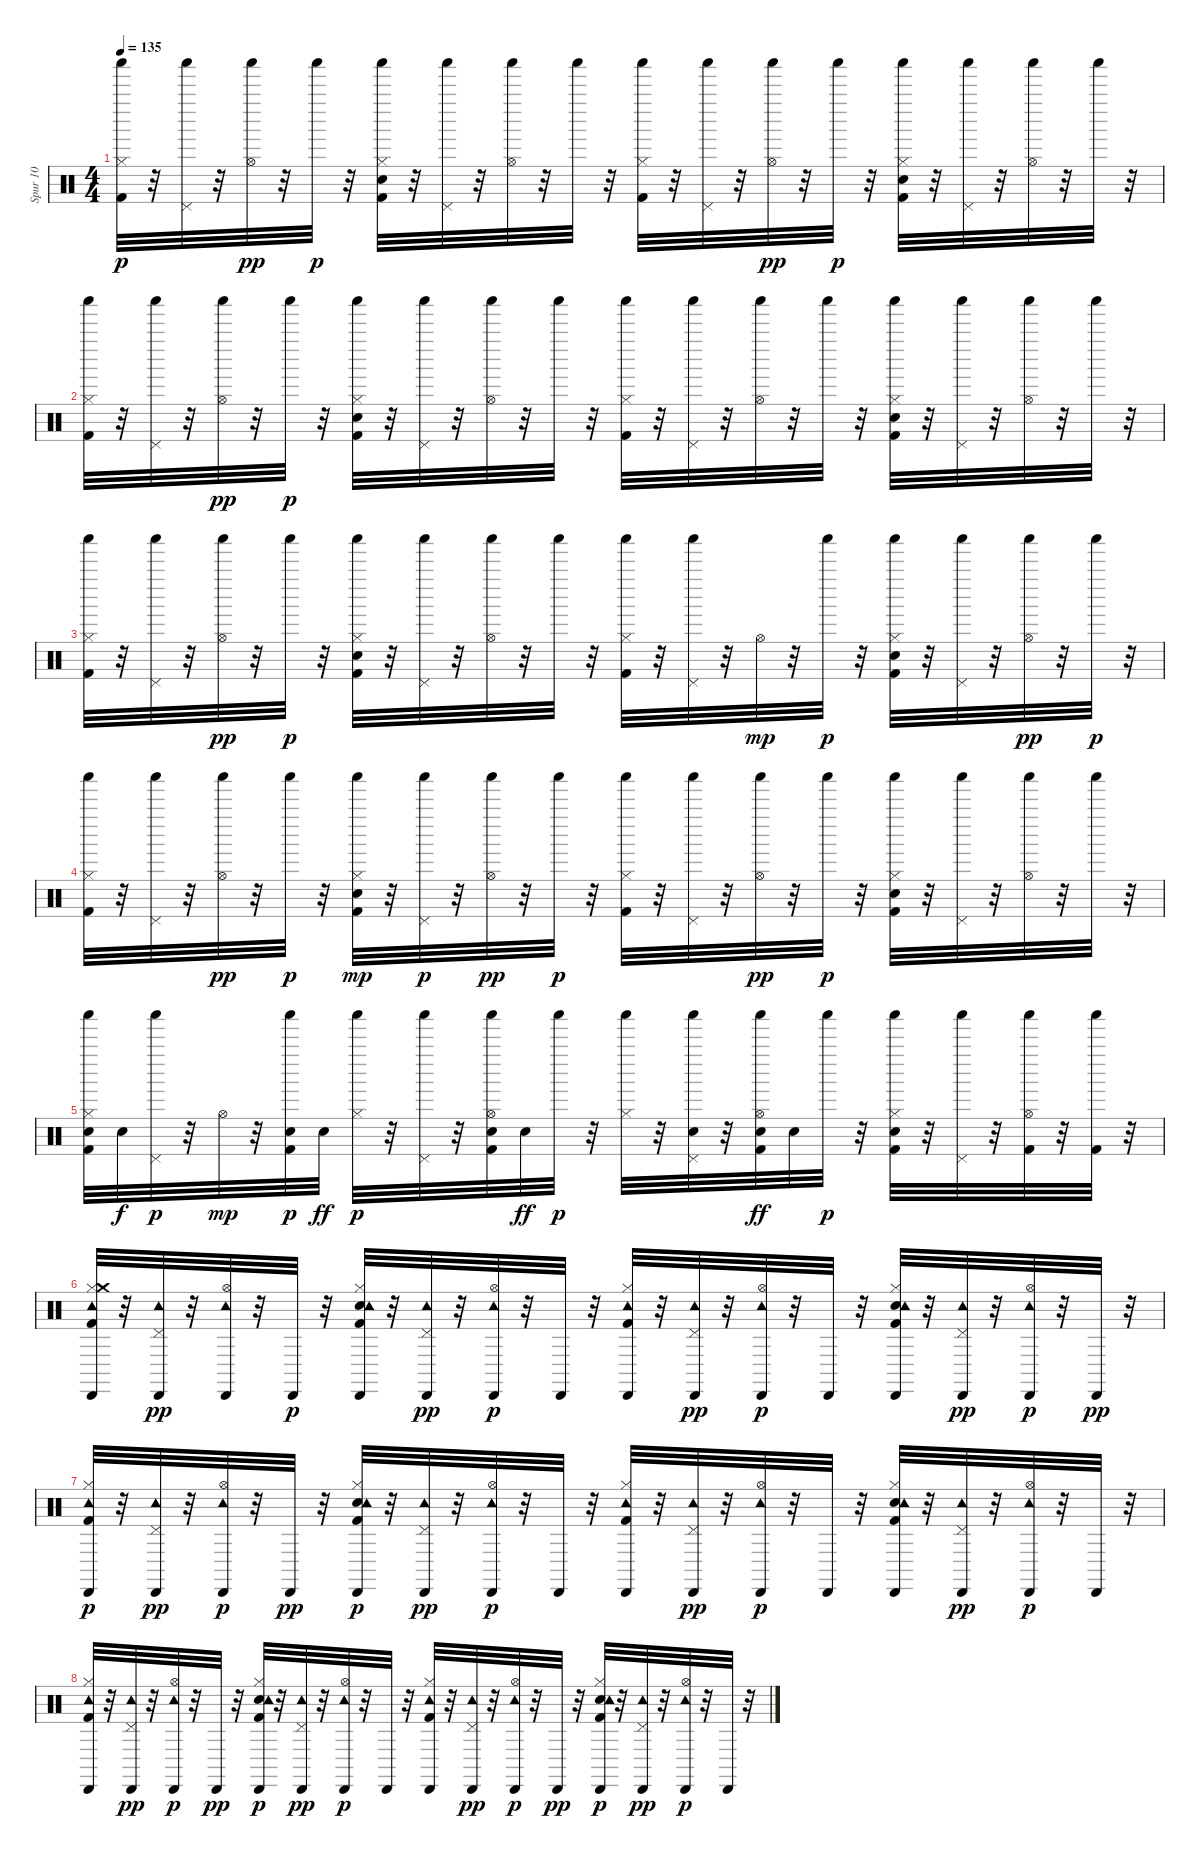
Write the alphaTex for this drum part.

\track ("Spur 10" "Spur 10") {instrument percussion}
\staff {score}
\articulation defaults
\ts (4 4)
\tempo 135
\clef neutral
\ks c
("Kick (hit) 2" "Hi-Hat (closed)" "Shaker (hit)").32{dy p} r.32 ("Pedal Hi-Hat (hit)" "Shaker (hit)").32 r.32 ("Hi-Hat (open)" "Shaker (hit)").32{dy pp} r.32 "Shaker (hit)".32{dy p} r.32 ("Kick (hit) 2" "Snare (hit) 2" "Hi-Hat (closed)" "Shaker (hit)").32 r.32 ("Pedal Hi-Hat (hit)" "Shaker (hit)").32 r.32 ("Hi-Hat (open)" "Shaker (hit)").32 r.32 "Shaker (hit)".32 r.32 ("Kick (hit) 2" "Hi-Hat (closed)" "Shaker (hit)").32 r.32 ("Pedal Hi-Hat (hit)" "Shaker (hit)").32 r.32 ("Hi-Hat (open)" "Shaker (hit)").32{dy pp} r.32 "Shaker (hit)".32{dy p} r.32 ("Kick (hit) 2" "Snare (hit) 2" "Hi-Hat (closed)" "Shaker (hit)").32 r.32 ("Pedal Hi-Hat (hit)" "Shaker (hit)").32 r.32 ("Hi-Hat (open)" "Shaker (hit)").32 r.32 "Shaker (hit)".32 r.32 |
("Kick (hit) 2" "Hi-Hat (closed)" "Shaker (hit)").32 r.32 ("Pedal Hi-Hat (hit)" "Shaker (hit)").32 r.32 ("Hi-Hat (open)" "Shaker (hit)").32{dy pp} r.32 "Shaker (hit)".32{dy p} r.32 ("Kick (hit) 2" "Snare (hit) 2" "Hi-Hat (closed)" "Shaker (hit)").32 r.32 ("Pedal Hi-Hat (hit)" "Shaker (hit)").32 r.32 ("Hi-Hat (open)" "Shaker (hit)").32 r.32 "Shaker (hit)".32 r.32 ("Kick (hit) 2" "Hi-Hat (closed)" "Shaker (hit)").32 r.32 ("Pedal Hi-Hat (hit)" "Shaker (hit)").32 r.32 ("Hi-Hat (open)" "Shaker (hit)").32 r.32 "Shaker (hit)".32 r.32 ("Kick (hit) 2" "Snare (hit) 2" "Hi-Hat (closed)" "Shaker (hit)").32 r.32 ("Pedal Hi-Hat (hit)" "Shaker (hit)").32 r.32 ("Hi-Hat (open)" "Shaker (hit)").32 r.32 "Shaker (hit)".32 r.32 |
("Kick (hit) 2" "Hi-Hat (closed)" "Shaker (hit)").32 r.32 ("Pedal Hi-Hat (hit)" "Shaker (hit)").32 r.32 ("Hi-Hat (open)" "Shaker (hit)").32{dy pp} r.32 "Shaker (hit)".32{dy p} r.32 ("Kick (hit) 2" "Snare (hit) 2" "Hi-Hat (closed)" "Shaker (hit)").32 r.32 ("Pedal Hi-Hat (hit)" "Shaker (hit)").32 r.32 ("Hi-Hat (open)" "Shaker (hit)").32 r.32 "Shaker (hit)".32 r.32 ("Kick (hit) 2" "Hi-Hat (closed)" "Shaker (hit)").32 r.32 ("Pedal Hi-Hat (hit)" "Shaker (hit)").32 r.32 "Hi-Hat (open)".32{dy mp} r.32 "Shaker (hit)".32{dy p} r.32 ("Kick (hit) 2" "Snare (hit) 2" "Hi-Hat (closed)" "Shaker (hit)").32 r.32 ("Pedal Hi-Hat (hit)" "Shaker (hit)").32 r.32 ("Hi-Hat (open)" "Shaker (hit)").32{dy pp} r.32 "Shaker (hit)".32{dy p} r.32 |
("Kick (hit) 2" "Hi-Hat (closed)" "Shaker (hit)").32 r.32 ("Pedal Hi-Hat (hit)" "Shaker (hit)").32 r.32 ("Hi-Hat (open)" "Shaker (hit)").32{dy pp} r.32 "Shaker (hit)".32{dy p} r.32 ("Kick (hit) 2" "Snare (hit) 2" "Hi-Hat (closed)" "Shaker (hit)").32{dy mp} r.32 ("Pedal Hi-Hat (hit)" "Shaker (hit)").32{dy p} r.32 ("Hi-Hat (open)" "Shaker (hit)").32{dy pp} r.32 "Shaker (hit)".32{dy p} r.32 ("Kick (hit) 2" "Hi-Hat (closed)" "Shaker (hit)").32 r.32 ("Pedal Hi-Hat (hit)" "Shaker (hit)").32 r.32 ("Hi-Hat (open)" "Shaker (hit)").32{dy pp} r.32 "Shaker (hit)".32{dy p} r.32 ("Kick (hit) 2" "Snare (hit) 2" "Hi-Hat (closed)" "Shaker (hit)").32 r.32 ("Pedal Hi-Hat (hit)" "Shaker (hit)").32 r.32 ("Hi-Hat (open)" "Shaker (hit)").32 r.32 "Shaker (hit)".32 r.32 |
("Kick (hit) 2" "Snare (hit) 2" "Hi-Hat (closed)" "Shaker (hit)").32 "Snare (hit) 2".32{dy f} ("Pedal Hi-Hat (hit)" "Shaker (hit)").32{dy p} r.32 "Hi-Hat (open)".32{dy mp} r.32 ("Kick (hit) 2" "Snare (hit) 2" "Shaker (hit)").32{dy p} "Snare (hit) 2".32{dy ff} ("Hi-Hat (closed)" "Shaker (hit)").32{dy p} r.32 ("Pedal Hi-Hat (hit)" "Shaker (hit)").32 r.32 ("Kick (hit) 2" "Snare (hit) 2" "Hi-Hat (open)" "Shaker (hit)").32 "Snare (hit) 2".32{dy ff} "Shaker (hit)".32{dy p} r.32 ("Hi-Hat (closed)" "Shaker (hit)").32 r.32 ("Snare (hit) 2" "Pedal Hi-Hat (hit)" "Shaker (hit)").32 r.32 ("Kick (hit) 2" "Hi-Hat (open)" "Shaker (hit)" "Snare (hit) 2").32{dy ff} "Snare (hit) 2".32 "Shaker (hit)".32{dy p} r.32 ("Kick (hit) 2" "Snare (hit) 2" "Hi-Hat (closed)" "Shaker (hit)").32 r.32 ("Pedal Hi-Hat (hit)" "Shaker (hit)").32 r.32 ("Kick (hit) 2" "Hi-Hat (open)" "Shaker (hit)").32 r.32 ("Kick (hit) 2" "Shaker (hit)").32 r.32 |
("Kick (hit) 2" "Hi-Hat (closed)" "Tambourine (hit)" "Crash medium (hit)" "Cabasa (hit)").32 r.32 ("Pedal Hi-Hat (hit)" "Tambourine (hit)" "Cabasa (hit)").32{dy pp} r.32 ("Hi-Hat (open)" "Tambourine (hit)" "Cabasa (hit)").32 r.32 "Cabasa (hit)".32{dy p} r.32 ("Kick (hit) 2" "Snare (hit) 2" "Hi-Hat (closed)" "Tambourine (hit)" "Cabasa (hit)").32 r.32 ("Pedal Hi-Hat (hit)" "Tambourine (hit)" "Cabasa (hit)").32{dy pp} r.32 ("Hi-Hat (open)" "Tambourine (hit)" "Cabasa (hit)").32{dy p} r.32 "Cabasa (hit)".32 r.32 ("Kick (hit) 2" "Hi-Hat (closed)" "Tambourine (hit)" "Cabasa (hit)").32 r.32 ("Pedal Hi-Hat (hit)" "Tambourine (hit)" "Cabasa (hit)").32{dy pp} r.32 ("Hi-Hat (open)" "Tambourine (hit)" "Cabasa (hit)").32{dy p} r.32 "Cabasa (hit)".32 r.32 ("Kick (hit) 2" "Snare (hit) 2" "Hi-Hat (closed)" "Tambourine (hit)" "Cabasa (hit)").32 r.32 ("Pedal Hi-Hat (hit)" "Tambourine (hit)" "Cabasa (hit)").32{dy pp} r.32 ("Hi-Hat (open)" "Tambourine (hit)" "Cabasa (hit)").32{dy p} r.32 "Cabasa (hit)".32{dy pp} r.32 |
("Kick (hit) 2" "Hi-Hat (closed)" "Tambourine (hit)" "Cabasa (hit)").32{dy p} r.32 ("Pedal Hi-Hat (hit)" "Tambourine (hit)" "Cabasa (hit)").32{dy pp} r.32 ("Hi-Hat (open)" "Tambourine (hit)" "Cabasa (hit)").32{dy p} r.32 "Cabasa (hit)".32{dy pp} r.32 ("Kick (hit) 2" "Snare (hit) 2" "Hi-Hat (closed)" "Tambourine (hit)" "Cabasa (hit)").32{dy p} r.32 ("Pedal Hi-Hat (hit)" "Tambourine (hit)" "Cabasa (hit)").32{dy pp} r.32 ("Hi-Hat (open)" "Tambourine (hit)" "Cabasa (hit)").32{dy p} r.32 "Cabasa (hit)".32 r.32 ("Kick (hit) 2" "Hi-Hat (closed)" "Tambourine (hit)" "Cabasa (hit)").32 r.32 ("Pedal Hi-Hat (hit)" "Tambourine (hit)" "Cabasa (hit)").32{dy pp} r.32 ("Hi-Hat (open)" "Tambourine (hit)" "Cabasa (hit)").32{dy p} r.32 "Cabasa (hit)".32 r.32 ("Kick (hit) 2" "Snare (hit) 2" "Hi-Hat (closed)" "Tambourine (hit)" "Cabasa (hit)").32 r.32 ("Pedal Hi-Hat (hit)" "Tambourine (hit)" "Cabasa (hit)").32{dy pp} r.32 ("Hi-Hat (open)" "Tambourine (hit)" "Cabasa (hit)").32{dy p} r.32 "Cabasa (hit)".32 r.32 |
("Kick (hit) 2" "Hi-Hat (closed)" "Tambourine (hit)" "Cabasa (hit)").32 r.32 ("Pedal Hi-Hat (hit)" "Tambourine (hit)" "Cabasa (hit)").32{dy pp} r.32 ("Hi-Hat (open)" "Tambourine (hit)" "Cabasa (hit)").32{dy p} r.32 "Cabasa (hit)".32{dy pp} r.32 ("Kick (hit) 2" "Snare (hit) 2" "Hi-Hat (closed)" "Tambourine (hit)" "Cabasa (hit)").32{dy p} r.32 ("Pedal Hi-Hat (hit)" "Tambourine (hit)" "Cabasa (hit)").32{dy pp} r.32 ("Hi-Hat (open)" "Tambourine (hit)" "Cabasa (hit)").32{dy p} r.32 "Cabasa (hit)".32 r.32 ("Kick (hit) 2" "Hi-Hat (closed)" "Tambourine (hit)" "Cabasa (hit)").32 r.32 ("Pedal Hi-Hat (hit)" "Tambourine (hit)" "Cabasa (hit)").32{dy pp} r.32 ("Hi-Hat (open)" "Tambourine (hit)" "Cabasa (hit)").32{dy p} r.32 "Cabasa (hit)".32{dy pp} r.32 ("Kick (hit) 2" "Snare (hit) 2" "Hi-Hat (closed)" "Tambourine (hit)" "Cabasa (hit)").32{dy p} r.32 ("Pedal Hi-Hat (hit)" "Tambourine (hit)" "Cabasa (hit)").32{dy pp} r.32 ("Hi-Hat (open)" "Tambourine (hit)" "Cabasa (hit)").32{dy p} r.32 "Cabasa (hit)".32 r.32
